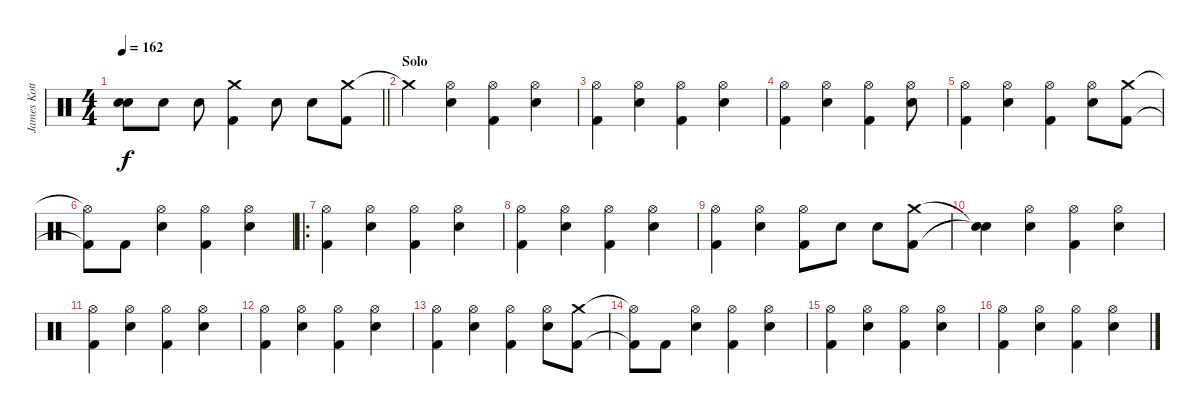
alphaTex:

\track ("James Kottak" "James Kott") {instrument percussion}
\staff {score}
\articulation defaults
\ts (4 4)
\tempo 162
\clef neutral
\barLineRight lightlight
\ks c
("Snare (hit) 2"{t} "Snare (hit)"{t}).8{dy f} "Snare (hit) 2".8 "Snare (hit) 2".8 ("Crash medium (hit)" "Kick (hit) 2").4 "Snare (hit) 2".8 "Snare (hit) 2".8 ("Crash medium (hit)" "Kick (hit) 2").8 |
\section ("" "Solo")
"Crash medium (hit)"{t}.4 ("Hi-Hat (open)" "Snare (hit) 2").4 ("Hi-Hat (open)" "Kick (hit) 2").4 ("Hi-Hat (open)" "Snare (hit) 2").4 |
("Hi-Hat (open)" "Kick (hit) 2").4 ("Hi-Hat (open)" "Snare (hit) 2").4 ("Hi-Hat (open)" "Kick (hit) 2").4 ("Hi-Hat (open)" "Snare (hit) 2").4 |
("Hi-Hat (open)" "Kick (hit) 2").4 ("Hi-Hat (open)" "Snare (hit) 2").4 ("Hi-Hat (open)" "Kick (hit) 2").4 ("Hi-Hat (open)" "Snare (hit) 2").8 |
("Hi-Hat (open)" "Kick (hit) 2").4 ("Hi-Hat (open)" "Snare (hit) 2").4 ("Hi-Hat (open)" "Kick (hit) 2").4 ("Hi-Hat (open)" "Snare (hit) 2").8 ("Crash medium (hit)" "Kick (hit) 2").8 |
("Hi-Hat (open)"{t} "Kick (hit) 2"{t}).8 "Kick (hit) 2".8 ("Hi-Hat (open)" "Snare (hit) 2").4 ("Hi-Hat (open)" "Kick (hit) 2").4 ("Hi-Hat (open)" "Snare (hit) 2").4 |
\ro
("Hi-Hat (open)" "Kick (hit) 2").4 ("Hi-Hat (open)" "Snare (hit) 2").4 ("Hi-Hat (open)" "Kick (hit) 2").4 ("Hi-Hat (open)" "Snare (hit) 2").4 |
("Hi-Hat (open)" "Kick (hit) 2").4 ("Hi-Hat (open)" "Snare (hit) 2").4 ("Hi-Hat (open)" "Kick (hit) 2").4 ("Hi-Hat (open)" "Snare (hit) 2").4 |
("Hi-Hat (open)" "Kick (hit) 2").4 ("Hi-Hat (open)" "Snare (hit) 2").4 ("Hi-Hat (open)" "Kick (hit) 2").8 "Snare (hit) 2".8 "Snare (hit) 2".8 ("Crash medium (hit)" "Kick (hit) 2").8 |
("Snare (hit)"{t} "Snare (hit)"{t}).4 ("Hi-Hat (open)" "Snare (hit) 2").4 ("Hi-Hat (open)" "Kick (hit) 2").4 ("Hi-Hat (open)" "Snare (hit) 2").4 |
("Hi-Hat (open)" "Kick (hit) 2").4 ("Hi-Hat (open)" "Snare (hit) 2").4 ("Hi-Hat (open)" "Kick (hit) 2").4 ("Hi-Hat (open)" "Snare (hit) 2").4 |
("Hi-Hat (open)" "Kick (hit) 2").4 ("Hi-Hat (open)" "Snare (hit) 2").4 ("Hi-Hat (open)" "Kick (hit) 2").4 ("Hi-Hat (open)" "Snare (hit) 2").4 |
("Hi-Hat (open)" "Kick (hit) 2").4 ("Hi-Hat (open)" "Snare (hit) 2").4 ("Hi-Hat (open)" "Kick (hit) 2").4 ("Hi-Hat (open)" "Snare (hit) 2").8 ("Crash medium (hit)" "Kick (hit) 2").8 |
("Hi-Hat (open)"{t} "Kick (hit) 2"{t}).8 "Kick (hit) 2".8 ("Hi-Hat (open)" "Snare (hit) 2").4 ("Hi-Hat (open)" "Kick (hit) 2").4 ("Hi-Hat (open)" "Snare (hit) 2").4 |
("Hi-Hat (open)" "Kick (hit) 2").4 ("Hi-Hat (open)" "Snare (hit) 2").4 ("Hi-Hat (open)" "Kick (hit) 2").4 ("Hi-Hat (open)" "Snare (hit) 2").4 |
("Hi-Hat (open)" "Kick (hit) 2").4 ("Hi-Hat (open)" "Snare (hit) 2").4 ("Hi-Hat (open)" "Kick (hit) 2").4 ("Hi-Hat (open)" "Snare (hit) 2").4
